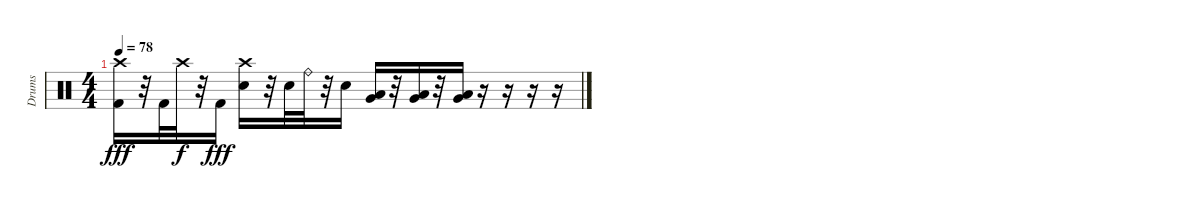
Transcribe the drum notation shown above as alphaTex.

\track ("Drums" "Drums") {instrument percussion}
\staff {score}
\articulation defaults
\ts (4 4)
\tempo 78
\clef neutral
\ks c
("Crash high (hit)" "Kick (hit) 2").16{dy fff} r.32 "Kick (hit) 2".32 "Crash high (hit)".32{dy f} r.32 "Kick (hit) 2".16{dy fff} ("Crash high (hit)" "Electric Snare (hit)").16 r.32 "Electric Snare (hit)".32 "Ride (bell)".32 r.32 "Electric Snare (hit)".16 ("Low Tom (hit)" "Very Low Tom (hit)").16 r.32 ("Low Tom (hit)" "Very Low Tom (hit)").16 r.32 ("Low Tom (hit)" "Very Low Tom (hit)").16 r.16 r.16 r.16 r.16
